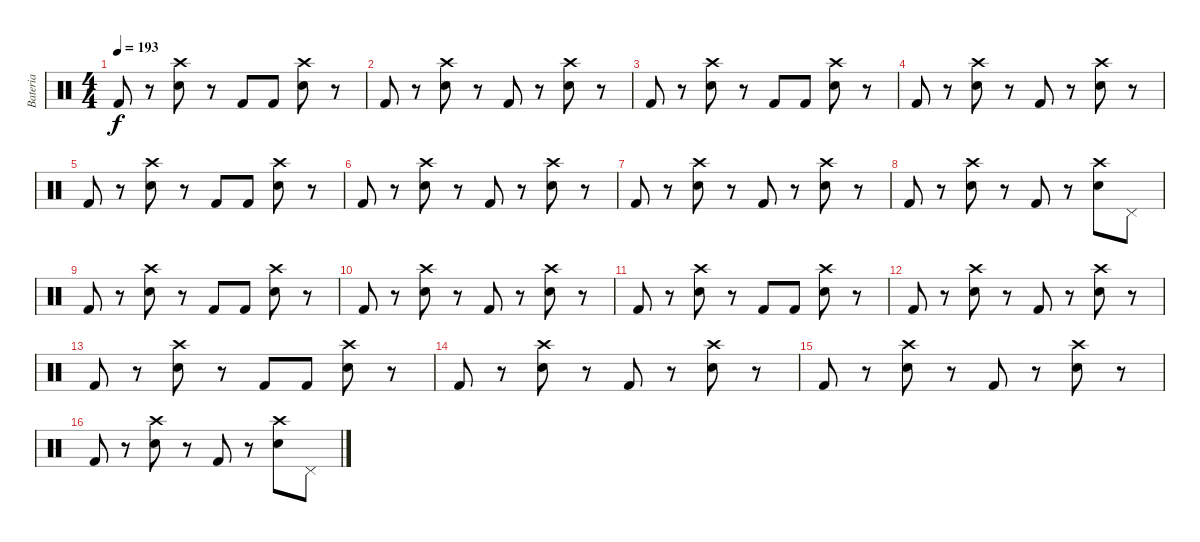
\track ("Bateria" "Bateria") {instrument percussion}
\staff {score}
\articulation defaults
\ts (4 4)
\tempo 193
\clef neutral
\ks c "Kick (hit) 2".8{dy f}
r.8 ("Electric Snare (hit)" "Crash high (hit)").8 r.8 "Kick (hit) 2".8 "Kick (hit) 2".8 ("Electric Snare (hit)" "Crash high (hit)").8 r.8 |
"Kick (hit) 2".8 r.8 ("Electric Snare (hit)" "Crash high (hit)").8 r.8 "Kick (hit) 2".8 r.8 ("Electric Snare (hit)" "Crash high (hit)").8 r.8 |
"Kick (hit) 2".8 r.8 ("Electric Snare (hit)" "Crash high (hit)").8 r.8 "Kick (hit) 2".8 "Kick (hit) 2".8 ("Electric Snare (hit)" "Crash high (hit)").8 r.8 |
"Kick (hit) 2".8 r.8 ("Electric Snare (hit)" "Crash high (hit)").8 r.8 "Kick (hit) 2".8 r.8 ("Electric Snare (hit)" "Crash high (hit)").8 r.8 |
"Kick (hit) 2".8 r.8 ("Electric Snare (hit)" "Crash high (hit)").8 r.8 "Kick (hit) 2".8 "Kick (hit) 2".8 ("Electric Snare (hit)" "Crash high (hit)").8 r.8 |
"Kick (hit) 2".8 r.8 ("Electric Snare (hit)" "Crash high (hit)").8 r.8 "Kick (hit) 2".8 r.8 ("Electric Snare (hit)" "Crash high (hit)").8 r.8 |
"Kick (hit) 2".8 r.8 ("Electric Snare (hit)" "Crash high (hit)").8 r.8 "Kick (hit) 2".8 r.8 ("Electric Snare (hit)" "Crash high (hit)").8 r.8 |
"Kick (hit) 2".8 r.8 ("Electric Snare (hit)" "Crash high (hit)").8 r.8 "Kick (hit) 2".8 r.8 ("Electric Snare (hit)" "Crash high (hit)").8 "Pedal Hi-Hat (hit)".8 |
"Kick (hit) 2".8 r.8 ("Electric Snare (hit)" "Crash high (hit)").8 r.8 "Kick (hit) 2".8 "Kick (hit) 2".8 ("Electric Snare (hit)" "Crash high (hit)").8 r.8 |
"Kick (hit) 2".8 r.8 ("Electric Snare (hit)" "Crash high (hit)").8 r.8 "Kick (hit) 2".8 r.8 ("Electric Snare (hit)" "Crash high (hit)").8 r.8 |
"Kick (hit) 2".8 r.8 ("Electric Snare (hit)" "Crash high (hit)").8 r.8 "Kick (hit) 2".8 "Kick (hit) 2".8 ("Electric Snare (hit)" "Crash high (hit)").8 r.8 |
"Kick (hit) 2".8 r.8 ("Electric Snare (hit)" "Crash high (hit)").8 r.8 "Kick (hit) 2".8 r.8 ("Electric Snare (hit)" "Crash high (hit)").8 r.8 |
"Kick (hit) 2".8 r.8 ("Electric Snare (hit)" "Crash high (hit)").8 r.8 "Kick (hit) 2".8 "Kick (hit) 2".8 ("Electric Snare (hit)" "Crash high (hit)").8 r.8 |
"Kick (hit) 2".8 r.8 ("Electric Snare (hit)" "Crash high (hit)").8 r.8 "Kick (hit) 2".8 r.8 ("Electric Snare (hit)" "Crash high (hit)").8 r.8 |
"Kick (hit) 2".8 r.8 ("Electric Snare (hit)" "Crash high (hit)").8 r.8 "Kick (hit) 2".8 r.8 ("Electric Snare (hit)" "Crash high (hit)").8 r.8 |
"Kick (hit) 2".8 r.8 ("Electric Snare (hit)" "Crash high (hit)").8 r.8 "Kick (hit) 2".8 r.8 ("Electric Snare (hit)" "Crash high (hit)").8 "Pedal Hi-Hat (hit)".8
